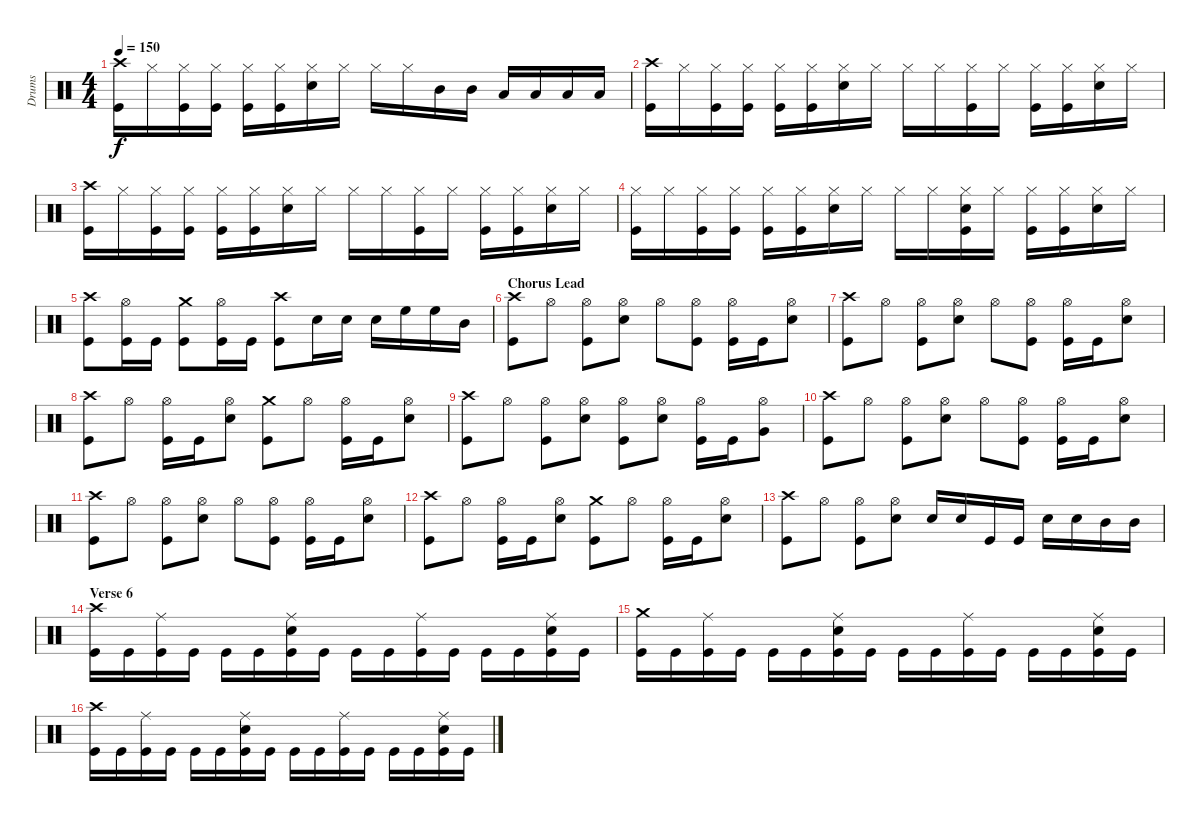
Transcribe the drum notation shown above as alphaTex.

\track ("Drums" "Drums") {instrument percussion}
\staff {score}
\articulation defaults
\ts (4 4)
\tempo 150
\clef neutral
\ks c
("Crash high (hit)" "Kick (hit)").16{dy f} "Hi-Hat (closed)".16 ("Hi-Hat (closed)" "Kick (hit)").16 ("Hi-Hat (closed)" "Kick (hit)").16 ("Hi-Hat (closed)" "Kick (hit)").16 ("Hi-Hat (closed)" "Kick (hit)").16 ("Hi-Hat (closed)" "Electric Snare (hit)").16 "Hi-Hat (closed)".16 "Hi-Hat (closed)".16 "Hi-Hat (closed)".16 "Mid Tom (hit)".16 "Mid Tom (hit)".16 "Low Tom (hit)".16 "Low Tom (hit)".16 "Low Tom (hit)".16 "Low Tom (hit)".16 |
("Crash high (hit)" "Kick (hit)").16 "Hi-Hat (closed)".16 ("Hi-Hat (closed)" "Kick (hit)").16 ("Hi-Hat (closed)" "Kick (hit)").16 ("Hi-Hat (closed)" "Kick (hit)").16 ("Hi-Hat (closed)" "Kick (hit)").16 ("Hi-Hat (closed)" "Electric Snare (hit)").16 "Hi-Hat (closed)".16 "Hi-Hat (closed)".16 "Hi-Hat (closed)".16 ("Hi-Hat (closed)" "Kick (hit)").16 "Hi-Hat (closed)".16 ("Hi-Hat (closed)" "Kick (hit)").16 ("Hi-Hat (closed)" "Kick (hit)").16 ("Hi-Hat (closed)" "Electric Snare (hit)").16 "Hi-Hat (closed)".16 |
("Crash high (hit)" "Kick (hit)").16 "Hi-Hat (closed)".16 ("Hi-Hat (closed)" "Kick (hit)").16 ("Hi-Hat (closed)" "Kick (hit)").16 ("Hi-Hat (closed)" "Kick (hit)").16 ("Hi-Hat (closed)" "Kick (hit)").16 ("Hi-Hat (closed)" "Electric Snare (hit)").16 "Hi-Hat (closed)".16 "Hi-Hat (closed)".16 "Hi-Hat (closed)".16 ("Hi-Hat (closed)" "Kick (hit)").16 "Hi-Hat (closed)".16 ("Hi-Hat (closed)" "Kick (hit)").16 ("Hi-Hat (closed)" "Kick (hit)").16 ("Hi-Hat (closed)" "Electric Snare (hit)").16 "Hi-Hat (closed)".16 |
("Hi-Hat (closed)" "Kick (hit)").16 "Hi-Hat (closed)".16 ("Hi-Hat (closed)" "Kick (hit)").16 ("Hi-Hat (closed)" "Kick (hit)").16 ("Hi-Hat (closed)" "Kick (hit)").16 ("Hi-Hat (closed)" "Kick (hit)").16 ("Hi-Hat (closed)" "Electric Snare (hit)").16 "Hi-Hat (closed)".16 "Hi-Hat (closed)".16 "Hi-Hat (closed)".16 ("Hi-Hat (closed)" "Electric Snare (hit)" "Kick (hit)").16 "Hi-Hat (closed)".16 ("Hi-Hat (closed)" "Kick (hit)").16 ("Hi-Hat (closed)" "Kick (hit)").16 ("Hi-Hat (closed)" "Electric Snare (hit)").16 "Hi-Hat (closed)".16 |
("Crash high (hit)" "Kick (hit)").8 ("Hi-Hat (open)" "Kick (hit)").16 "Kick (hit)".16 ("Crash medium (hit)" "Kick (hit)").8 ("Hi-Hat (open)" "Kick (hit)").16 "Kick (hit)".16 ("Crash high (hit)" "Kick (hit)").8 "Electric Snare (hit)".16 "Electric Snare (hit)".16 "Electric Snare (hit)".16 "High Floor Tom (hit)".16 "High Floor Tom (hit)".16 "Mid Tom (hit)".16 |
\section ("" "Chorus Lead")
("Crash high (hit)" "Kick (hit)").8 "Hi-Hat (open)".8 ("Hi-Hat (open)" "Kick (hit)").8 ("Hi-Hat (open)" "Electric Snare (hit)").8 "Hi-Hat (open)".8 ("Hi-Hat (open)" "Kick (hit)").8 ("Hi-Hat (open)" "Kick (hit)").16 "Kick (hit)".16 ("Hi-Hat (open)" "Electric Snare (hit)").8 |
("Crash high (hit)" "Kick (hit)").8 "Hi-Hat (open)".8 ("Hi-Hat (open)" "Kick (hit)").8 ("Hi-Hat (open)" "Electric Snare (hit)").8 "Hi-Hat (open)".8 ("Hi-Hat (open)" "Kick (hit)").8 ("Hi-Hat (open)" "Kick (hit)").16 "Kick (hit)".16 ("Hi-Hat (open)" "Electric Snare (hit)").8 |
("Crash high (hit)" "Kick (hit)").8 "Hi-Hat (open)".8 ("Hi-Hat (open)" "Kick (hit)").16 "Kick (hit)".16 ("Hi-Hat (open)" "Electric Snare (hit)").8 ("Crash medium (hit)" "Kick (hit)").8 "Hi-Hat (open)".8 ("Hi-Hat (open)" "Kick (hit)").16 "Kick (hit)".16 ("Hi-Hat (open)" "Electric Snare (hit)").8 |
("Crash high (hit)" "Kick (hit)").8 "Hi-Hat (open)".8 ("Hi-Hat (open)" "Kick (hit)").8 ("Hi-Hat (open)" "Electric Snare (hit)").8 ("Hi-Hat (open)" "Kick (hit)").8 ("Hi-Hat (open)" "Electric Snare (hit)").8 ("Hi-Hat (open)" "Kick (hit)").16 "Kick (hit)".16 ("Hi-Hat (open)" "Very Low Tom (hit)").8 |
("Crash high (hit)" "Kick (hit)").8 "Hi-Hat (open)".8 ("Hi-Hat (open)" "Kick (hit)").8 ("Hi-Hat (open)" "Electric Snare (hit)").8 "Hi-Hat (open)".8 ("Hi-Hat (open)" "Kick (hit)").8 ("Hi-Hat (open)" "Kick (hit)").16 "Kick (hit)".16 ("Hi-Hat (open)" "Electric Snare (hit)").8 |
("Crash high (hit)" "Kick (hit)").8 "Hi-Hat (open)".8 ("Hi-Hat (open)" "Kick (hit)").8 ("Hi-Hat (open)" "Electric Snare (hit)").8 "Hi-Hat (open)".8 ("Hi-Hat (open)" "Kick (hit)").8 ("Hi-Hat (open)" "Kick (hit)").16 "Kick (hit)".16 ("Hi-Hat (open)" "Electric Snare (hit)").8 |
("Crash high (hit)" "Kick (hit)").8 "Hi-Hat (open)".8 ("Hi-Hat (open)" "Kick (hit)").16 "Kick (hit)".16 ("Hi-Hat (open)" "Electric Snare (hit)").8 ("Crash medium (hit)" "Kick (hit)").8 "Hi-Hat (open)".8 ("Hi-Hat (open)" "Kick (hit)").16 "Kick (hit)".16 ("Hi-Hat (open)" "Electric Snare (hit)").8 |
("Crash high (hit)" "Kick (hit)").8 "Hi-Hat (open)".8 ("Hi-Hat (open)" "Kick (hit)").8 ("Hi-Hat (open)" "Electric Snare (hit)").8 "Electric Snare (hit)".16 "Electric Snare (hit)".16 "Kick (hit)".16 "Kick (hit)".16 "Electric Snare (hit)".16 "Electric Snare (hit)".16 "Mid Tom (hit)".16 "Mid Tom (hit)".16 |
\section ("" "Verse 6")
("Crash high (hit)" "Kick (hit)").16 "Kick (hit)".16 ("Ride (middle)" "Kick (hit)").16 "Kick (hit)".16 "Kick (hit)".16 "Kick (hit)".16 ("Ride (middle)" "Electric Snare (hit)" "Kick (hit)").16 "Kick (hit)".16 "Kick (hit)".16 "Kick (hit)".16 ("Ride (middle)" "Kick (hit)").16 "Kick (hit)".16 "Kick (hit)".16 "Kick (hit)".16 ("Ride (middle)" "Electric Snare (hit)" "Kick (hit)").16 "Kick (hit)".16 |
("Crash medium (hit)" "Kick (hit)").16 "Kick (hit)".16 ("Ride (middle)" "Kick (hit)").16 "Kick (hit)".16 "Kick (hit)".16 "Kick (hit)".16 ("Ride (middle)" "Electric Snare (hit)" "Kick (hit)").16 "Kick (hit)".16 "Kick (hit)".16 "Kick (hit)".16 ("Ride (middle)" "Kick (hit)").16 "Kick (hit)".16 "Kick (hit)".16 "Kick (hit)".16 ("Ride (middle)" "Electric Snare (hit)" "Kick (hit)").16 "Kick (hit)".16 |
("Crash high (hit)" "Kick (hit)").16 "Kick (hit)".16 ("Ride (middle)" "Kick (hit)").16 "Kick (hit)".16 "Kick (hit)".16 "Kick (hit)".16 ("Ride (middle)" "Electric Snare (hit)" "Kick (hit)").16 "Kick (hit)".16 "Kick (hit)".16 "Kick (hit)".16 ("Ride (middle)" "Kick (hit)").16 "Kick (hit)".16 "Kick (hit)".16 "Kick (hit)".16 ("Ride (middle)" "Electric Snare (hit)" "Kick (hit)").16 "Kick (hit)".16
